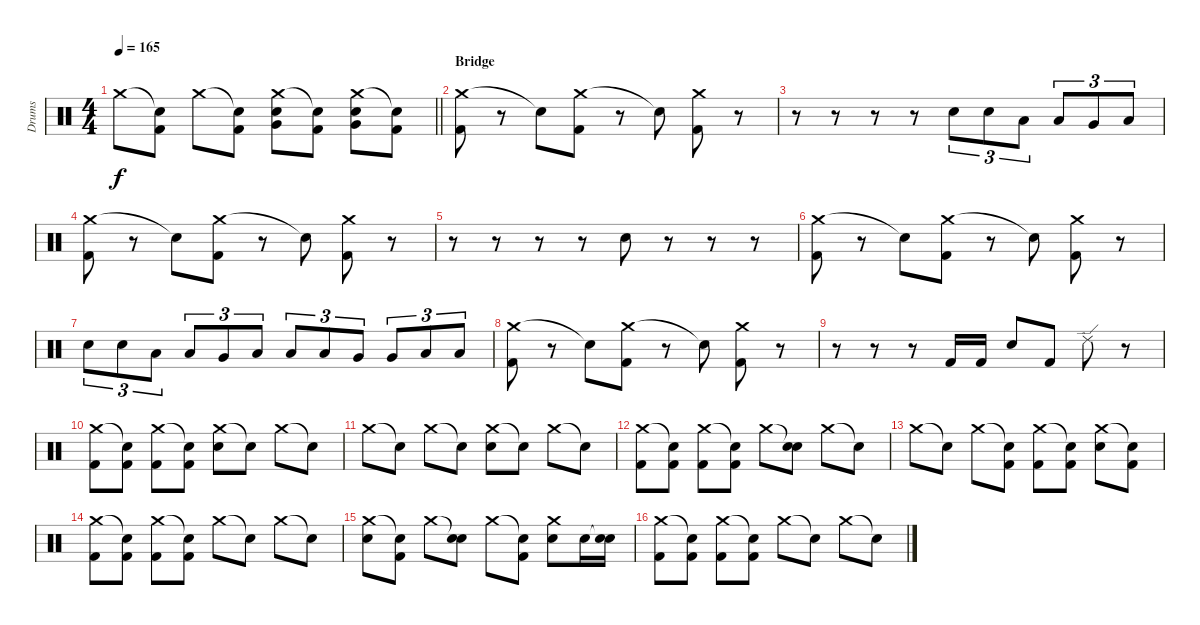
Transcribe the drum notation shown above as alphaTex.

\track ("Drums" "Drums") {instrument percussion}
\staff {score}
\articulation defaults
\ts (4 4)
\tempo 165
\clef neutral
\barLineRight lightlight
\ks c "Crash medium (hit)".8{dy f}
("Snare (hit)"{t} "Kick (hit) 2").8 "Crash medium (hit)".8 ("Snare (hit)"{t} "Kick (hit) 2").8 ("Crash medium (hit)" "Very Low Tom (hit)" "Electric Snare (hit)").8 ("Snare (hit)"{t} "Kick (hit) 2").8 ("Crash medium (hit)" "Very Low Tom (hit)" "Electric Snare (hit)").8 ("Snare (hit)"{t} "Kick (hit) 2").8 |
\section ("" "Bridge")
("Crash medium (hit)" "Kick (hit) 2").8 r.8 "Snare (hit)"{t}.8 ("Crash medium (hit)" "Kick (hit) 2").8 r.8 "Snare (hit)"{t}.8 ("Crash medium (hit)" "Kick (hit) 2").8 r.8 |
r.8 r.8 r.8 r.8 "Electric Snare (hit)".8{tu (3 2)} "Electric Snare (hit)".8{tu (3 2)} "Low Tom (hit)".8{tu (3 2)} "Low Tom (hit)".8{tu (3 2)} "Very Low Tom (hit)".8{tu (3 2)} "Low Floor Tom (hit)".8{tu (3 2)} |
("Crash medium (hit)" "Kick (hit) 2").8 r.8 "Snare (hit)"{t}.8 ("Crash medium (hit)" "Kick (hit) 2").8 r.8 "Snare (hit)"{t}.8 ("Crash medium (hit)" "Kick (hit) 2").8 r.8 |
r.8 r.8 r.8 r.8 "Electric Snare (hit)".8 r.8 r.8 r.8 |
("Crash medium (hit)" "Kick (hit) 2").8 r.8 "Snare (hit)"{t}.8 ("Crash medium (hit)" "Kick (hit) 2").8 r.8 "Snare (hit)"{t}.8 ("Crash medium (hit)" "Kick (hit) 2").8 r.8 |
"Electric Snare (hit)".8{tu (3 2)} "Electric Snare (hit)".8{tu (3 2)} "Low Tom (hit)".8{tu (3 2)} "Low Tom (hit)".8{tu (3 2)} "Very Low Tom (hit)".8{tu (3 2)} "Low Floor Tom (hit)".8{tu (3 2)} "Low Tom (hit)".8{tu (3 2)} "Low Tom (hit)".8{tu (3 2)} "Very Low Tom (hit)".8{tu (3 2)} "Very Low Tom (hit)".8{tu (3 2)} "Low Floor Tom (hit)".8{tu (3 2)} "Low Floor Tom (hit)".8{tu (3 2)} |
("Crash medium (hit)" "Kick (hit) 2").8 r.8 "Snare (hit)"{t}.8 ("Crash medium (hit)" "Kick (hit) 2").8 r.8 "Snare (hit)"{t}.8 ("Crash medium (hit)" "Kick (hit) 2").8 r.8 |
r.8 r.8 r.8 "Kick (hit) 2".16 "Kick (hit) 2".16 "Electric Snare (hit)".8 "Kick (hit) 2".8 "Ride (edge) 2".8 r.8 |
("Crash medium (hit)" "Kick (hit) 2").8 ("Snare (hit)"{t} "Kick (hit) 2").8 ("Crash medium (hit)" "Kick (hit) 2").8 ("Snare (hit)"{t} "Kick (hit) 2").8 ("Crash medium (hit)" "Electric Snare (hit)").8 "Snare (hit)"{t}.8 "Crash medium (hit)".8 "Snare (hit)"{t}.8 |
"Crash medium (hit)".8 "Snare (hit)"{t}.8 "Crash medium (hit)".8 "Snare (hit)"{t}.8 ("Crash medium (hit)" "Electric Snare (hit)").8 "Snare (hit)"{t}.8 "Crash medium (hit)".8 "Snare (hit)"{t}.8 |
("Crash medium (hit)" "Kick (hit) 2").8 ("Snare (hit)"{t} "Kick (hit) 2").8 ("Crash medium (hit)" "Kick (hit) 2").8 ("Snare (hit)"{t} "Kick (hit) 2").8 "Crash medium (hit)".8 ("Snare (hit)"{t} "Electric Snare (hit)").8 "Crash medium (hit)".8 "Snare (hit)"{t}.8 |
"Crash medium (hit)".8 "Snare (hit)"{t}.8 "Crash medium (hit)".8 ("Snare (hit)"{t} "Kick (hit) 2").8 ("Crash medium (hit)" "Kick (hit) 2").8 ("Snare (hit)"{t} "Kick (hit) 2").8 ("Crash medium (hit)" "Electric Snare (hit)").8 ("Snare (hit)"{t} "Kick (hit) 2").8 |
("Crash medium (hit)" "Kick (hit) 2").8 ("Snare (hit)"{t} "Kick (hit) 2").8 ("Crash medium (hit)" "Kick (hit) 2").8 ("Snare (hit)"{t} "Kick (hit) 2").8 "Crash medium (hit)".8 "Snare (hit)"{t}.8 "Crash medium (hit)".8 "Snare (hit)"{t}.8 |
("Crash medium (hit)" "Electric Snare (hit)").8 ("Snare (hit)"{t} "Kick (hit) 2").8 "Crash medium (hit)".8 ("Snare (hit)"{t} "Electric Snare (hit)").8 "Crash medium (hit)".8 ("Snare (hit)"{t} "Kick (hit) 2").8 ("Crash medium (hit)" "Electric Snare (hit)").8 "Electric Snare (hit)".16 ("Snare (hit)"{t} "Electric Snare (hit)").16 |
("Crash medium (hit)" "Kick (hit) 2").8 ("Snare (hit)"{t} "Kick (hit) 2").8 ("Crash medium (hit)" "Kick (hit) 2").8 ("Snare (hit)"{t} "Kick (hit) 2").8 "Crash medium (hit)".8 "Snare (hit)"{t}.8 "Crash medium (hit)".8 "Snare (hit)"{t}.8
